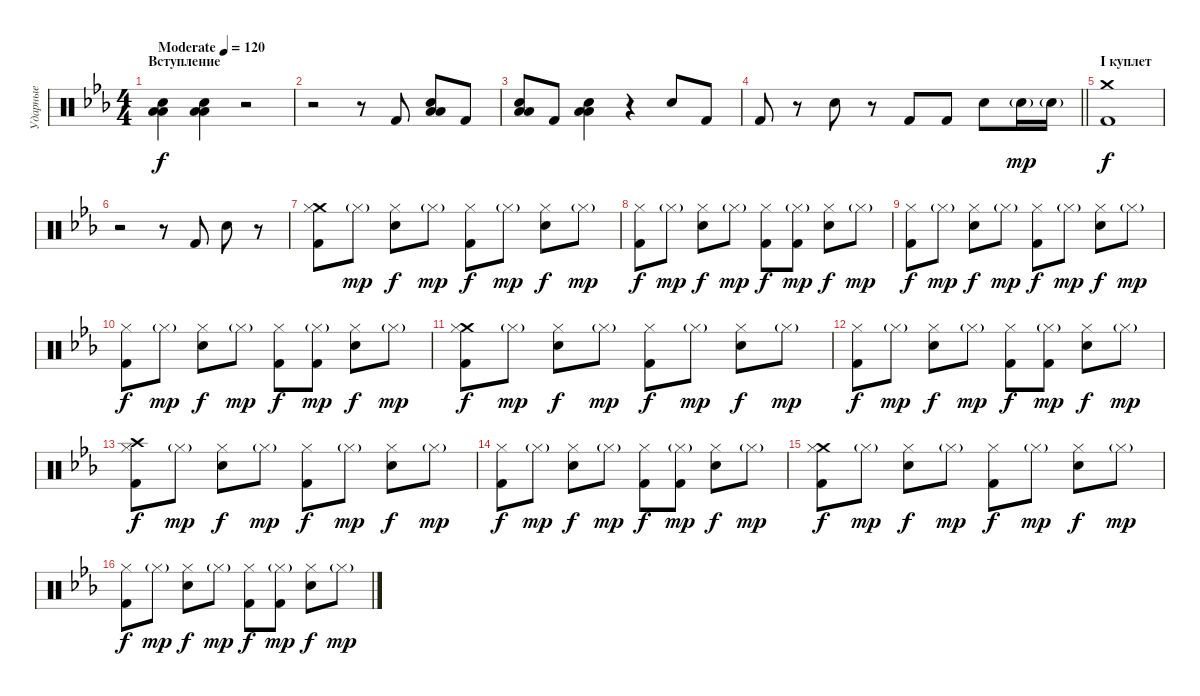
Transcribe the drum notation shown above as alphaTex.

\track ("Ударные" "Ударные") {instrument percussion}
\staff {score}
\articulation defaults
\ts (4 4)
\section ("" "Вступление")
\tempo (120 "Moderate")
\clef neutral
\ks cminor
("Low Tom (hit)" "Low Floor Tom (hit)" "Electric Snare (hit)").4{dy f} ("Low Tom (hit)" "Low Floor Tom (hit)" "Electric Snare (hit)").4 r.2 |
r.2 r.8 "Kick (hit) 2".8 ("Low Tom (hit)" "Low Floor Tom (hit)" "Electric Snare (hit)").8 "Kick (hit) 2".8 |
("Low Tom (hit)" "Low Floor Tom (hit)" "Electric Snare (hit)").8 "Kick (hit) 2".8 ("Low Tom (hit)" "Low Floor Tom (hit)" "Electric Snare (hit)").4 r.4 "Electric Snare (hit)".8 "Kick (hit) 2".8 |
\barLineRight lightlight "Kick (hit) 2".8
r.8 "Electric Snare (hit)".8 r.8 "Kick (hit) 2".8 "Kick (hit) 2".8 "Electric Snare (hit)".8 "Electric Snare (hit)"{g}.16{dy mp} "Electric Snare (hit)"{g}.16 |
\section ("" "I куплет")
("Crash medium (hit)" "Kick (hit) 2").1{dy f} |
r.2 r.8 "Kick (hit) 2".8 "Electric Snare (hit)".8 r.8 |
("Crash medium (hit)" "Kick (hit) 2" "Hi-Hat (closed)").8 "Hi-Hat (closed)"{g}.8{dy mp} ("Electric Snare (hit)" "Hi-Hat (closed)").8{dy f} "Hi-Hat (closed)"{g}.8{dy mp} ("Kick (hit) 2" "Hi-Hat (closed)").8{dy f} "Hi-Hat (closed)"{g}.8{dy mp} ("Electric Snare (hit)" "Hi-Hat (closed)").8{dy f} "Hi-Hat (closed)"{g}.8{dy mp} |
("Kick (hit) 2" "Hi-Hat (closed)").8{dy f} "Hi-Hat (closed)"{g}.8{dy mp} ("Electric Snare (hit)" "Hi-Hat (closed)").8{dy f} "Hi-Hat (closed)"{g}.8{dy mp} ("Kick (hit) 2" "Hi-Hat (closed)").8{dy f} ("Kick (hit) 2" "Hi-Hat (closed)"{g}).8{dy mp} ("Electric Snare (hit)" "Hi-Hat (closed)").8{dy f} "Hi-Hat (closed)"{g}.8{dy mp} |
("Kick (hit) 2" "Hi-Hat (closed)").8{dy f} "Hi-Hat (closed)"{g}.8{dy mp} ("Electric Snare (hit)" "Hi-Hat (closed)").8{dy f} "Hi-Hat (closed)"{g}.8{dy mp} ("Kick (hit) 2" "Hi-Hat (closed)").8{dy f} "Hi-Hat (closed)"{g}.8{dy mp} ("Electric Snare (hit)" "Hi-Hat (closed)").8{dy f} "Hi-Hat (closed)"{g}.8{dy mp} |
("Kick (hit) 2" "Hi-Hat (closed)").8{dy f} "Hi-Hat (closed)"{g}.8{dy mp} ("Electric Snare (hit)" "Hi-Hat (closed)").8{dy f} "Hi-Hat (closed)"{g}.8{dy mp} ("Kick (hit) 2" "Hi-Hat (closed)").8{dy f} ("Kick (hit) 2" "Hi-Hat (closed)"{g}).8{dy mp} ("Electric Snare (hit)" "Hi-Hat (closed)").8{dy f} "Hi-Hat (closed)"{g}.8{dy mp} |
("Crash medium (hit)" "Kick (hit) 2" "Hi-Hat (closed)").8{dy f} "Hi-Hat (closed)"{g}.8{dy mp} ("Electric Snare (hit)" "Hi-Hat (closed)").8{dy f} "Hi-Hat (closed)"{g}.8{dy mp} ("Kick (hit) 2" "Hi-Hat (closed)").8{dy f} "Hi-Hat (closed)"{g}.8{dy mp} ("Electric Snare (hit)" "Hi-Hat (closed)").8{dy f} "Hi-Hat (closed)"{g}.8{dy mp} |
("Kick (hit) 2" "Hi-Hat (closed)").8{dy f} "Hi-Hat (closed)"{g}.8{dy mp} ("Electric Snare (hit)" "Hi-Hat (closed)").8{dy f} "Hi-Hat (closed)"{g}.8{dy mp} ("Kick (hit) 2" "Hi-Hat (closed)").8{dy f} ("Kick (hit) 2" "Hi-Hat (closed)"{g}).8{dy mp} ("Electric Snare (hit)" "Hi-Hat (closed)").8{dy f} "Hi-Hat (closed)"{g}.8{dy mp} |
("Crash high (hit)" "Kick (hit) 2" "Hi-Hat (closed)").8{dy f} "Hi-Hat (closed)"{g}.8{dy mp} ("Electric Snare (hit)" "Hi-Hat (closed)").8{dy f} "Hi-Hat (closed)"{g}.8{dy mp} ("Kick (hit) 2" "Hi-Hat (closed)").8{dy f} "Hi-Hat (closed)"{g}.8{dy mp} ("Electric Snare (hit)" "Hi-Hat (closed)").8{dy f} "Hi-Hat (closed)"{g}.8{dy mp} |
("Kick (hit) 2" "Hi-Hat (closed)").8{dy f} "Hi-Hat (closed)"{g}.8{dy mp} ("Electric Snare (hit)" "Hi-Hat (closed)").8{dy f} "Hi-Hat (closed)"{g}.8{dy mp} ("Kick (hit) 2" "Hi-Hat (closed)").8{dy f} ("Kick (hit) 2" "Hi-Hat (closed)"{g}).8{dy mp} ("Electric Snare (hit)" "Hi-Hat (closed)").8{dy f} "Hi-Hat (closed)"{g}.8{dy mp} |
("Crash medium (hit)" "Kick (hit) 2" "Hi-Hat (closed)").8{dy f} "Hi-Hat (closed)"{g}.8{dy mp} ("Electric Snare (hit)" "Hi-Hat (closed)").8{dy f} "Hi-Hat (closed)"{g}.8{dy mp} ("Kick (hit) 2" "Hi-Hat (closed)").8{dy f} "Hi-Hat (closed)"{g}.8{dy mp} ("Electric Snare (hit)" "Hi-Hat (closed)").8{dy f} "Hi-Hat (closed)"{g}.8{dy mp} |
("Kick (hit) 2" "Hi-Hat (closed)").8{dy f} "Hi-Hat (closed)"{g}.8{dy mp} ("Electric Snare (hit)" "Hi-Hat (closed)").8{dy f} "Hi-Hat (closed)"{g}.8{dy mp} ("Kick (hit) 2" "Hi-Hat (closed)").8{dy f} ("Kick (hit) 2" "Hi-Hat (closed)"{g}).8{dy mp} ("Electric Snare (hit)" "Hi-Hat (closed)").8{dy f} "Hi-Hat (closed)"{g}.8{dy mp}
